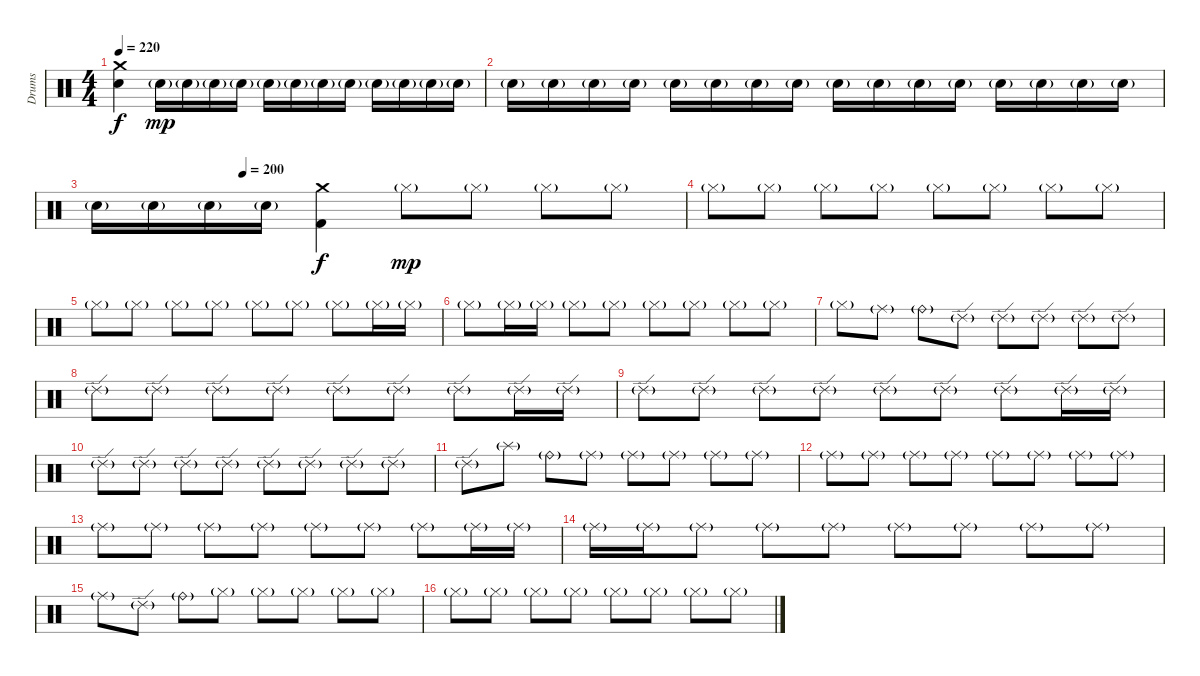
\track ("Drums" "Drums") {instrument percussion}
\staff {score}
\articulation defaults
\ts (4 4)
\tempo 220
\clef neutral
\ks c
("Crash medium (hit)" "Electric Snare (hit)").4{dy f} "Electric Snare (hit)"{g}.16{dy mp} "Electric Snare (hit)"{g}.16 "Electric Snare (hit)"{g}.16 "Electric Snare (hit)"{g}.16 "Electric Snare (hit)"{g}.16 "Electric Snare (hit)"{g}.16 "Electric Snare (hit)"{g}.16 "Electric Snare (hit)"{g}.16 "Electric Snare (hit)"{g}.16 "Electric Snare (hit)"{g}.16 "Electric Snare (hit)"{g}.16 "Electric Snare (hit)"{g}.16 |
"Electric Snare (hit)"{g}.16 "Electric Snare (hit)"{g}.16 "Electric Snare (hit)"{g}.16 "Electric Snare (hit)"{g}.16 "Electric Snare (hit)"{g}.16 "Electric Snare (hit)"{g}.16 "Electric Snare (hit)"{g}.16 "Electric Snare (hit)"{g}.16 "Electric Snare (hit)"{g}.16 "Electric Snare (hit)"{g}.16 "Electric Snare (hit)"{g}.16 "Electric Snare (hit)"{g}.16 "Electric Snare (hit)"{g}.16 "Electric Snare (hit)"{g}.16 "Electric Snare (hit)"{g}.16 "Electric Snare (hit)"{g}.16 |
\tempo (200 0.25)
"Electric Snare (hit)"{g}.16 "Electric Snare (hit)"{g}.16 "Electric Snare (hit)"{g}.16 "Electric Snare (hit)"{g}.16 ("Crash medium (hit)" "Kick (hit) 2").4{dy f} "Hi-Hat (closed)"{g}.8{dy mp} "Hi-Hat (closed)"{g}.8 "Hi-Hat (closed)"{g}.8 "Hi-Hat (closed)"{g}.8 |
"Hi-Hat (closed)"{g}.8 "Hi-Hat (closed)"{g}.8 "Hi-Hat (closed)"{g}.8 "Hi-Hat (closed)"{g}.8 "Hi-Hat (closed)"{g}.8 "Hi-Hat (closed)"{g}.8 "Hi-Hat (closed)"{g}.8 "Hi-Hat (closed)"{g}.8 |
"Hi-Hat (closed)"{g}.8 "Hi-Hat (closed)"{g}.8 "Hi-Hat (closed)"{g}.8 "Hi-Hat (closed)"{g}.8 "Hi-Hat (closed)"{g}.8 "Hi-Hat (closed)"{g}.8 "Hi-Hat (closed)"{g}.8 "Hi-Hat (closed)"{g}.16 "Hi-Hat (closed)"{g}.16 |
"Hi-Hat (closed)"{g}.8 "Hi-Hat (closed)"{g}.16 "Hi-Hat (closed)"{g}.16 "Hi-Hat (closed)"{g}.8 "Hi-Hat (closed)"{g}.8 "Hi-Hat (closed)"{g}.8 "Hi-Hat (closed)"{g}.8 "Hi-Hat (closed)"{g}.8 "Hi-Hat (closed)"{g}.8 |
"Hi-Hat (closed)"{g}.8 "Ride (middle)"{g}.8 "Ride (bell)"{g}.8 "Ride (edge) 2"{g}.8 "Ride (edge) 2"{g}.8 "Ride (edge) 2"{g}.8 "Ride (edge) 2"{g}.8 "Ride (edge) 2"{g}.8 |
"Ride (edge) 2"{g}.8 "Ride (edge) 2"{g}.8 "Ride (edge) 2"{g}.8 "Ride (edge) 2"{g}.8 "Ride (edge) 2"{g}.8 "Ride (edge) 2"{g}.8 "Ride (edge) 2"{g}.8 "Ride (edge) 2"{g}.16 "Ride (edge) 2"{g}.16 |
"Ride (edge) 2"{g}.8 "Ride (edge) 2"{g}.8 "Ride (edge) 2"{g}.8 "Ride (edge) 2"{g}.8 "Ride (edge) 2"{g}.8 "Ride (edge) 2"{g}.8 "Ride (edge) 2"{g}.8 "Ride (edge) 2"{g}.16 "Ride (edge) 2"{g}.16 |
"Ride (edge) 2"{g}.8 "Ride (edge) 2"{g}.8 "Ride (edge) 2"{g}.8 "Ride (edge) 2"{g}.8 "Ride (edge) 2"{g}.8 "Ride (edge) 2"{g}.8 "Ride (edge) 2"{g}.8 "Ride (edge) 2"{g}.8 |
"Ride (edge) 2"{g}.8 "Splash (hit)"{g}.8 "Ride (bell)"{g}.8 "Ride (middle)"{g}.8 "Ride (middle)"{g}.8 "Ride (middle)"{g}.8 "Ride (middle)"{g}.8 "Ride (middle)"{g}.8 |
"Ride (middle)"{g}.8 "Ride (middle)"{g}.8 "Ride (middle)"{g}.8 "Ride (middle)"{g}.8 "Ride (middle)"{g}.8 "Ride (middle)"{g}.8 "Ride (middle)"{g}.8 "Ride (middle)"{g}.8 |
"Ride (middle)"{g}.8 "Ride (middle)"{g}.8 "Ride (middle)"{g}.8 "Ride (middle)"{g}.8 "Ride (middle)"{g}.8 "Ride (middle)"{g}.8 "Ride (middle)"{g}.8 "Ride (middle)"{g}.16 "Ride (middle)"{g}.16 |
"Ride (middle)"{g}.16 "Ride (middle)"{g}.16 "Ride (middle)"{g}.8 "Ride (middle)"{g}.8 "Ride (middle)"{g}.8 "Ride (middle)"{g}.8 "Ride (middle)"{g}.8 "Ride (middle)"{g}.8 "Ride (middle)"{g}.8 |
"Ride (middle)"{g}.8 "Ride (edge) 2"{g}.8 "Ride (bell)"{g}.8 "Hi-Hat (closed)"{g}.8 "Hi-Hat (closed)"{g}.8 "Hi-Hat (closed)"{g}.8 "Hi-Hat (closed)"{g}.8 "Hi-Hat (closed)"{g}.8 |
"Hi-Hat (closed)"{g}.8 "Hi-Hat (closed)"{g}.8 "Hi-Hat (closed)"{g}.8 "Hi-Hat (closed)"{g}.8 "Hi-Hat (closed)"{g}.8 "Hi-Hat (closed)"{g}.8 "Hi-Hat (closed)"{g}.8 "Hi-Hat (closed)"{g}.8
